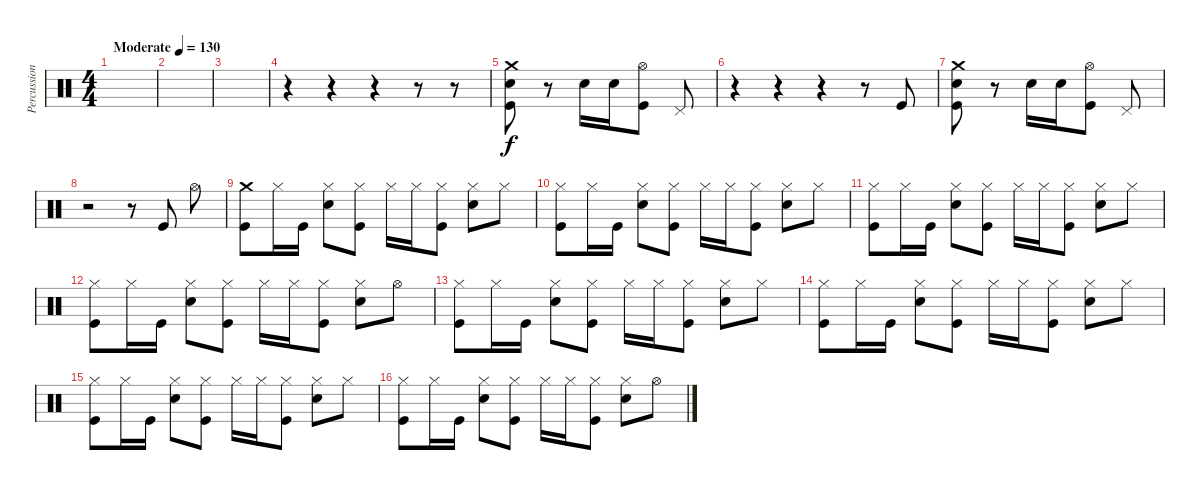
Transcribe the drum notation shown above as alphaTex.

\track ("Percussion" "Percussion") {instrument percussion}
\staff {score}
\articulation defaults
\ts (4 4)
\tempo (130 "Moderate")
\clef neutral
\ks c
|
|
|
r.4 r.4 r.4 r.8 r.8 |
("Crash medium (hit)" "Snare (hit) 2" "Kick (hit)").8 r.8 "Snare (hit) 2".16 "Snare (hit) 2".16 ("Hi-Hat (open)" "Kick (hit)").8 "Pedal Hi-Hat (hit)".8 |
r.4 r.4 r.4 r.8 "Kick (hit)".8 |
("Crash medium (hit)" "Snare (hit) 2" "Kick (hit)").8 r.8 "Snare (hit) 2".16 "Snare (hit) 2".16 ("Hi-Hat (open)" "Kick (hit)").8 "Pedal Hi-Hat (hit)".8 |
r.2 r.8 "Kick (hit)".8 "Hi-Hat (open)".8 |
("Crash medium (hit)" "Kick (hit)").8 "Hi-Hat (closed)".16 "Kick (hit)".16 ("Hi-Hat (closed)" "Snare (hit) 2").8 ("Hi-Hat (closed)" "Kick (hit)").8 "Hi-Hat (closed)".16 "Hi-Hat (closed)".16 ("Hi-Hat (closed)" "Kick (hit)").8 ("Hi-Hat (closed)" "Snare (hit) 2").8 "Hi-Hat (closed)".8 |
("Hi-Hat (closed)" "Kick (hit)").8 "Hi-Hat (closed)".16 "Kick (hit)".16 ("Hi-Hat (closed)" "Snare (hit) 2").8 ("Hi-Hat (closed)" "Kick (hit)").8 "Hi-Hat (closed)".16 "Hi-Hat (closed)".16 ("Hi-Hat (closed)" "Kick (hit)").8 ("Hi-Hat (closed)" "Snare (hit) 2").8 "Hi-Hat (closed)".8 |
("Hi-Hat (closed)" "Kick (hit)").8 "Hi-Hat (closed)".16 "Kick (hit)".16 ("Hi-Hat (closed)" "Snare (hit) 2").8 ("Hi-Hat (closed)" "Kick (hit)").8 "Hi-Hat (closed)".16 "Hi-Hat (closed)".16 ("Hi-Hat (closed)" "Kick (hit)").8 ("Hi-Hat (closed)" "Snare (hit) 2").8 "Hi-Hat (closed)".8 |
("Hi-Hat (closed)" "Kick (hit)").8 "Hi-Hat (closed)".16 "Kick (hit)".16 ("Hi-Hat (closed)" "Snare (hit) 2").8 ("Hi-Hat (closed)" "Kick (hit)").8 "Hi-Hat (closed)".16 "Hi-Hat (closed)".16 ("Hi-Hat (closed)" "Kick (hit)").8 ("Hi-Hat (closed)" "Snare (hit) 2").8 "Hi-Hat (open)".8 |
("Hi-Hat (closed)" "Kick (hit)").8 "Hi-Hat (closed)".16 "Kick (hit)".16 ("Hi-Hat (closed)" "Snare (hit) 2").8 ("Hi-Hat (closed)" "Kick (hit)").8 "Hi-Hat (closed)".16 "Hi-Hat (closed)".16 ("Hi-Hat (closed)" "Kick (hit)").8 ("Hi-Hat (closed)" "Snare (hit) 2").8 "Hi-Hat (closed)".8 |
("Hi-Hat (closed)" "Kick (hit)").8 "Hi-Hat (closed)".16 "Kick (hit)".16 ("Hi-Hat (closed)" "Snare (hit) 2").8 ("Hi-Hat (closed)" "Kick (hit)").8 "Hi-Hat (closed)".16 "Hi-Hat (closed)".16 ("Hi-Hat (closed)" "Kick (hit)").8 ("Hi-Hat (closed)" "Snare (hit) 2").8 "Hi-Hat (closed)".8 |
("Hi-Hat (closed)" "Kick (hit)").8 "Hi-Hat (closed)".16 "Kick (hit)".16 ("Hi-Hat (closed)" "Snare (hit) 2").8 ("Hi-Hat (closed)" "Kick (hit)").8 "Hi-Hat (closed)".16 "Hi-Hat (closed)".16 ("Hi-Hat (closed)" "Kick (hit)").8 ("Hi-Hat (closed)" "Snare (hit) 2").8 "Hi-Hat (closed)".8 |
("Hi-Hat (closed)" "Kick (hit)").8 "Hi-Hat (closed)".16 "Kick (hit)".16 ("Hi-Hat (closed)" "Snare (hit) 2").8 ("Hi-Hat (closed)" "Kick (hit)").8 "Hi-Hat (closed)".16 "Hi-Hat (closed)".16 ("Hi-Hat (closed)" "Kick (hit)").8 ("Hi-Hat (closed)" "Snare (hit) 2").8 "Hi-Hat (open)".8
